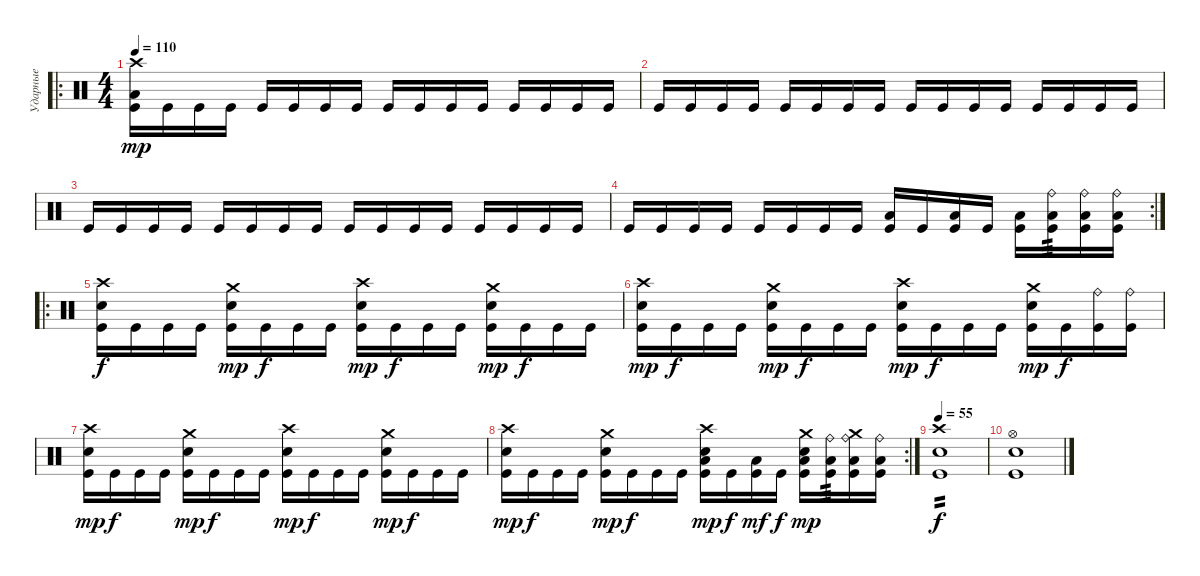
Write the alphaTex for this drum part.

\track ("Ударные" "Ударные") {instrument percussion}
\staff
\articulation defaults
\ro
\ts (4 4)
\tempo 110
\clef neutral
\ks c
("Crash high (hit)" "Low Floor Tom (hit)" "Kick (hit)").16{dy mp} "Kick (hit)".16 "Kick (hit)".16 "Kick (hit)".16 "Kick (hit)".16 "Kick (hit)".16 "Kick (hit)".16 "Kick (hit)".16 "Kick (hit)".16 "Kick (hit)".16 "Kick (hit)".16 "Kick (hit)".16 "Kick (hit)".16 "Kick (hit)".16 "Kick (hit)".16 "Kick (hit)".16 |
"Kick (hit)".16 "Kick (hit)".16 "Kick (hit)".16 "Kick (hit)".16 "Kick (hit)".16 "Kick (hit)".16 "Kick (hit)".16 "Kick (hit)".16 "Kick (hit)".16 "Kick (hit)".16 "Kick (hit)".16 "Kick (hit)".16 "Kick (hit)".16 "Kick (hit)".16 "Kick (hit)".16 "Kick (hit)".16 |
"Kick (hit)".16 "Kick (hit)".16 "Kick (hit)".16 "Kick (hit)".16 "Kick (hit)".16 "Kick (hit)".16 "Kick (hit)".16 "Kick (hit)".16 "Kick (hit)".16 "Kick (hit)".16 "Kick (hit)".16 "Kick (hit)".16 "Kick (hit)".16 "Kick (hit)".16 "Kick (hit)".16 "Kick (hit)".16 |
\rc 2 "Kick (hit)".16 "Kick (hit)".16 "Kick (hit)".16 "Kick (hit)".16 "Kick (hit)".16 "Kick (hit)".16 "Kick (hit)".16 "Kick (hit)".16
("Low Floor Tom (hit)" "Kick (hit)").16 "Kick (hit)".16 ("Low Floor Tom (hit)" "Kick (hit)").16 "Kick (hit)".16 ("Low Floor Tom (hit)" "Kick (hit)").16 ("Low Floor Tom (hit)" "Ride (bell)" "Kick (hit)").16{tp 3} ("Low Floor Tom (hit)" "Ride (bell)" "Kick (hit)").16 ("Low Floor Tom (hit)" "Ride (bell)" "Kick (hit)").16 |
\ro
("Crash high (hit)" "Snare (hit) 2" "Kick (hit)").16{dy f} "Kick (hit)".16 "Kick (hit)".16 "Kick (hit)".16 ("Crash medium (hit)" "Snare (hit) 2" "Kick (hit)").16{dy mp} "Kick (hit)".16{dy f} "Kick (hit)".16 "Kick (hit)".16 ("Crash high (hit)" "Snare (hit) 2" "Kick (hit)").16{dy mp} "Kick (hit)".16{dy f} "Kick (hit)".16 "Kick (hit)".16 ("Crash medium (hit)" "Snare (hit) 2" "Kick (hit)").16{dy mp} "Kick (hit)".16{dy f} "Kick (hit)".16 "Kick (hit)".16 |
("Crash high (hit)" "Snare (hit) 2" "Kick (hit)").16{dy mp} "Kick (hit)".16{dy f} "Kick (hit)".16 "Kick (hit)".16 ("Crash medium (hit)" "Snare (hit) 2" "Kick (hit)").16{dy mp} "Kick (hit)".16{dy f} "Kick (hit)".16 "Kick (hit)".16 ("Crash high (hit)" "Snare (hit) 2" "Kick (hit)").16{dy mp} "Kick (hit)".16{dy f} "Kick (hit)".16 "Kick (hit)".16 ("Crash medium (hit)" "Snare (hit) 2" "Kick (hit)").16{dy mp} "Kick (hit)".16{dy f} ("Ride (bell)" "Kick (hit)").16 ("Ride (bell)" "Kick (hit)").16 |
("Crash high (hit)" "Snare (hit) 2" "Kick (hit)").16{dy mp} "Kick (hit)".16{dy f} "Kick (hit)".16 "Kick (hit)".16 ("Crash medium (hit)" "Snare (hit) 2" "Kick (hit)").16{dy mp} "Kick (hit)".16{dy f} "Kick (hit)".16 "Kick (hit)".16 ("Crash high (hit)" "Snare (hit) 2" "Kick (hit)").16{dy mp} "Kick (hit)".16{dy f} "Kick (hit)".16 "Kick (hit)".16 ("Crash medium (hit)" "Snare (hit) 2" "Kick (hit)").16{dy mp} "Kick (hit)".16{dy f} "Kick (hit)".16 "Kick (hit)".16 |
\rc 2
("Crash high (hit)" "Snare (hit) 2" "Kick (hit)").16{dy mp} "Kick (hit)".16{dy f} "Kick (hit)".16 "Kick (hit)".16 ("Crash medium (hit)" "Snare (hit) 2" "Kick (hit)").16{dy mp} "Kick (hit)".16{dy f} "Kick (hit)".16 "Kick (hit)".16 ("Crash high (hit)" "Snare (hit) 2" "Low Floor Tom (hit)" "Kick (hit)").16{dy mp} "Kick (hit)".16{dy f} ("Low Floor Tom (hit)" "Kick (hit)").16{dy mf} "Kick (hit)".16{dy f} ("Crash medium (hit)" "Snare (hit) 2" "Low Floor Tom (hit)" "Kick (hit)").16{dy mp} ("Low Floor Tom (hit)" "Ride (bell)" "Kick (hit)").16{tp 3} ("Crash medium (hit)" "Low Floor Tom (hit)" "Ride (bell)" "Kick (hit)").16 ("Low Floor Tom (hit)" "Ride (bell)" "Kick (hit)").16 |
\tempo 55
("Crash high (hit)" "Snare (hit) 2" "Kick (hit)").1{tp 2 dy f} |
("Hi-Hat (open)" "Snare (hit) 2" "Kick (hit)").1
